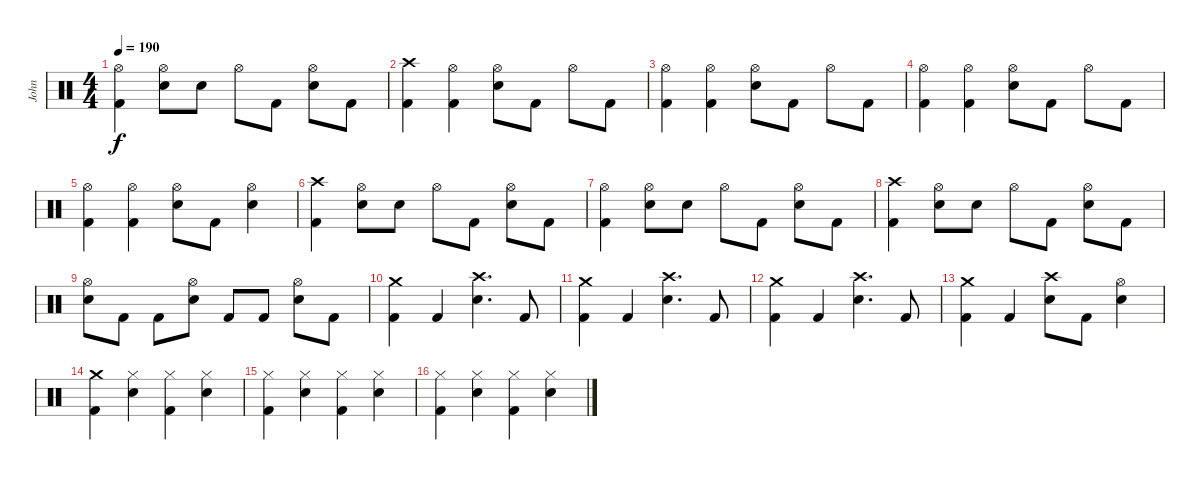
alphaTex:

\track ("John" "John") {instrument percussion}
\staff {score}
\articulation defaults
\ts (4 4)
\tempo 190
\clef neutral
\ks c
("Kick (hit) 2" "Hi-Hat (open)").4{dy f} ("Snare (hit) 2" "Hi-Hat (open)").8 "Snare (hit) 2".8 "Hi-Hat (open)".8 "Kick (hit) 2".8 ("Snare (hit) 2" "Hi-Hat (open)").8 "Kick (hit) 2".8 |
("Kick (hit) 2" "Crash high (hit)").4 ("Kick (hit) 2" "Hi-Hat (open)").4 ("Snare (hit) 2" "Hi-Hat (open)").8 "Kick (hit) 2".8 "Hi-Hat (open)".8 "Kick (hit) 2".8 |
("Kick (hit) 2" "Hi-Hat (open)").4 ("Kick (hit) 2" "Hi-Hat (open)").4 ("Snare (hit) 2" "Hi-Hat (open)").8 "Kick (hit) 2".8 "Hi-Hat (open)".8 "Kick (hit) 2".8 |
("Kick (hit) 2" "Hi-Hat (open)").4 ("Kick (hit) 2" "Hi-Hat (open)").4 ("Snare (hit) 2" "Hi-Hat (open)").8 "Kick (hit) 2".8 "Hi-Hat (open)".8 "Kick (hit) 2".8 |
("Kick (hit) 2" "Hi-Hat (open)").4 ("Kick (hit) 2" "Hi-Hat (open)").4 ("Snare (hit) 2" "Hi-Hat (open)").8 "Kick (hit) 2".8 ("Snare (hit) 2" "Hi-Hat (open)").4 |
("Kick (hit) 2" "Crash high (hit)").4 ("Snare (hit) 2" "Hi-Hat (open)").8 "Snare (hit) 2".8 "Hi-Hat (open)".8 "Kick (hit) 2".8 ("Snare (hit) 2" "Hi-Hat (open)").8 "Kick (hit) 2".8 |
("Kick (hit) 2" "Hi-Hat (open)").4 ("Snare (hit) 2" "Hi-Hat (open)").8 "Snare (hit) 2".8 "Hi-Hat (open)".8 "Kick (hit) 2".8 ("Snare (hit) 2" "Hi-Hat (open)").8 "Kick (hit) 2".8 |
("Kick (hit) 2" "Crash high (hit)").4 ("Snare (hit) 2" "Hi-Hat (open)").8 "Snare (hit) 2".8 "Hi-Hat (open)".8 "Kick (hit) 2".8 ("Snare (hit) 2" "Hi-Hat (open)").8 "Kick (hit) 2".8 |
("Snare (hit) 2" "Hi-Hat (open)").8 "Kick (hit) 2".8 "Kick (hit) 2".8 ("Snare (hit) 2" "Hi-Hat (open)").8 "Kick (hit) 2".8 "Kick (hit) 2".8 ("Snare (hit) 2" "Hi-Hat (open)").8 "Kick (hit) 2".8 |
("Kick (hit) 2" "Crash medium (hit)").4 "Kick (hit) 2".4 ("Snare (hit) 2" "Crash high (hit)").4{d} "Kick (hit) 2".8 |
("Kick (hit) 2" "Crash medium (hit)").4 "Kick (hit) 2".4 ("Snare (hit) 2" "Crash high (hit)").4{d} "Kick (hit) 2".8 |
("Kick (hit) 2" "Crash medium (hit)").4 "Kick (hit) 2".4 ("Snare (hit) 2" "Crash high (hit)").4{d} "Kick (hit) 2".8 |
("Kick (hit) 2" "Crash medium (hit)").4 "Kick (hit) 2".4 ("Snare (hit) 2" "Crash high (hit)").8 "Kick (hit) 2".8 ("Snare (hit) 2" "Hi-Hat (open)").4 |
("Kick (hit) 2" "Crash medium (hit)").4 ("Snare (hit) 2" "Hi-Hat (closed)").4 ("Kick (hit) 2" "Hi-Hat (closed)").4 ("Snare (hit) 2" "Hi-Hat (closed)").4 |
("Kick (hit) 2" "Hi-Hat (closed)").4 ("Snare (hit) 2" "Hi-Hat (closed)").4 ("Kick (hit) 2" "Hi-Hat (closed)").4 ("Snare (hit) 2" "Hi-Hat (closed)").4 |
("Kick (hit) 2" "Hi-Hat (closed)").4 ("Snare (hit) 2" "Hi-Hat (closed)").4 ("Kick (hit) 2" "Hi-Hat (closed)").4 ("Snare (hit) 2" "Hi-Hat (closed)").4
